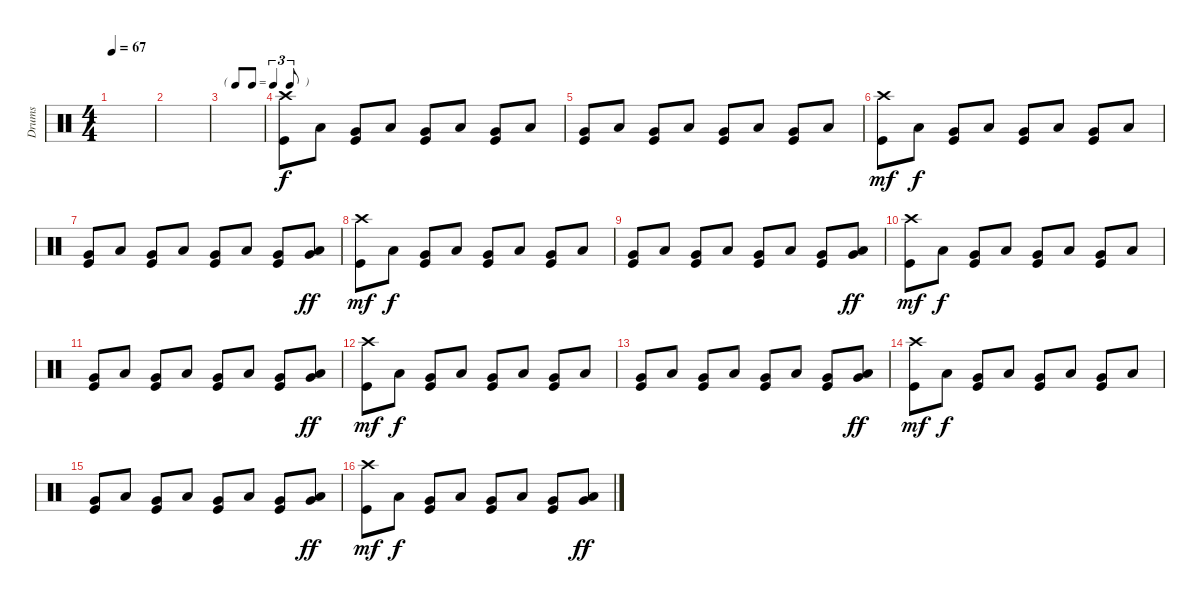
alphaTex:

\track (" Drums " " Drums ") {instrument percussion}
\staff {score}
\articulation defaults
\ts (4 4)
\tempo 67
\clef neutral
\ks c
|
|
\tf triplet8th
|
("Crash high (hit)" "Kick (hit)").8 "Low Floor Tom (hit)".8{dy f} ("Very Low Tom (hit)" "Kick (hit)").8 "Low Floor Tom (hit)".8 ("Very Low Tom (hit)" "Kick (hit)").8 "Low Floor Tom (hit)".8 ("Very Low Tom (hit)" "Kick (hit)").8 "Low Floor Tom (hit)".8 |
("Very Low Tom (hit)" "Kick (hit)").8 "Low Floor Tom (hit)".8 ("Very Low Tom (hit)" "Kick (hit)").8 "Low Floor Tom (hit)".8 ("Very Low Tom (hit)" "Kick (hit)").8 "Low Floor Tom (hit)".8 ("Very Low Tom (hit)" "Kick (hit)").8 "Low Floor Tom (hit)".8 |
("Crash high (hit)" "Kick (hit)").8{dy mf} "Low Floor Tom (hit)".8{dy f} ("Very Low Tom (hit)" "Kick (hit)").8 "Low Floor Tom (hit)".8 ("Very Low Tom (hit)" "Kick (hit)").8 "Low Floor Tom (hit)".8 ("Very Low Tom (hit)" "Kick (hit)").8 "Low Floor Tom (hit)".8 |
("Very Low Tom (hit)" "Kick (hit)").8 "Low Floor Tom (hit)".8 ("Very Low Tom (hit)" "Kick (hit)").8 "Low Floor Tom (hit)".8 ("Very Low Tom (hit)" "Kick (hit)").8 "Low Floor Tom (hit)".8 ("Very Low Tom (hit)" "Kick (hit)").8 ("Very Low Tom (hit)" "Low Floor Tom (hit)").8{dy ff} |
("Crash high (hit)" "Kick (hit)").8{dy mf} "Low Floor Tom (hit)".8{dy f} ("Very Low Tom (hit)" "Kick (hit)").8 "Low Floor Tom (hit)".8 ("Very Low Tom (hit)" "Kick (hit)").8 "Low Floor Tom (hit)".8 ("Very Low Tom (hit)" "Kick (hit)").8 "Low Floor Tom (hit)".8 |
("Very Low Tom (hit)" "Kick (hit)").8 "Low Floor Tom (hit)".8 ("Very Low Tom (hit)" "Kick (hit)").8 "Low Floor Tom (hit)".8 ("Very Low Tom (hit)" "Kick (hit)").8 "Low Floor Tom (hit)".8 ("Very Low Tom (hit)" "Kick (hit)").8 ("Low Floor Tom (hit)" "Very Low Tom (hit)").8{dy ff} |
("Crash high (hit)" "Kick (hit)").8{dy mf} "Low Floor Tom (hit)".8{dy f} ("Very Low Tom (hit)" "Kick (hit)").8 "Low Floor Tom (hit)".8 ("Very Low Tom (hit)" "Kick (hit)").8 "Low Floor Tom (hit)".8 ("Very Low Tom (hit)" "Kick (hit)").8 "Low Floor Tom (hit)".8 |
("Very Low Tom (hit)" "Kick (hit)").8 "Low Floor Tom (hit)".8 ("Very Low Tom (hit)" "Kick (hit)").8 "Low Floor Tom (hit)".8 ("Very Low Tom (hit)" "Kick (hit)").8 "Low Floor Tom (hit)".8 ("Very Low Tom (hit)" "Kick (hit)").8 ("Low Floor Tom (hit)" "Very Low Tom (hit)").8{dy ff} |
("Crash high (hit)" "Kick (hit)").8{dy mf} "Low Floor Tom (hit)".8{dy f} ("Very Low Tom (hit)" "Kick (hit)").8 "Low Floor Tom (hit)".8 ("Very Low Tom (hit)" "Kick (hit)").8 "Low Floor Tom (hit)".8 ("Very Low Tom (hit)" "Kick (hit)").8 "Low Floor Tom (hit)".8 |
("Very Low Tom (hit)" "Kick (hit)").8 "Low Floor Tom (hit)".8 ("Very Low Tom (hit)" "Kick (hit)").8 "Low Floor Tom (hit)".8 ("Very Low Tom (hit)" "Kick (hit)").8 "Low Floor Tom (hit)".8 ("Very Low Tom (hit)" "Kick (hit)").8 ("Low Floor Tom (hit)" "Very Low Tom (hit)").8{dy ff} |
("Crash high (hit)" "Kick (hit)").8{dy mf} "Low Floor Tom (hit)".8{dy f} ("Very Low Tom (hit)" "Kick (hit)").8 "Low Floor Tom (hit)".8 ("Very Low Tom (hit)" "Kick (hit)").8 "Low Floor Tom (hit)".8 ("Very Low Tom (hit)" "Kick (hit)").8 "Low Floor Tom (hit)".8 |
("Very Low Tom (hit)" "Kick (hit)").8 "Low Floor Tom (hit)".8 ("Very Low Tom (hit)" "Kick (hit)").8 "Low Floor Tom (hit)".8 ("Very Low Tom (hit)" "Kick (hit)").8 "Low Floor Tom (hit)".8 ("Very Low Tom (hit)" "Kick (hit)").8 ("Low Floor Tom (hit)" "Very Low Tom (hit)").8{dy ff} |
("Crash high (hit)" "Kick (hit)").8{dy mf} "Low Floor Tom (hit)".8{dy f} ("Very Low Tom (hit)" "Kick (hit)").8 "Low Floor Tom (hit)".8 ("Very Low Tom (hit)" "Kick (hit)").8 "Low Floor Tom (hit)".8 ("Very Low Tom (hit)" "Kick (hit)").8 ("Low Floor Tom (hit)" "Very Low Tom (hit)").8{dy ff}
